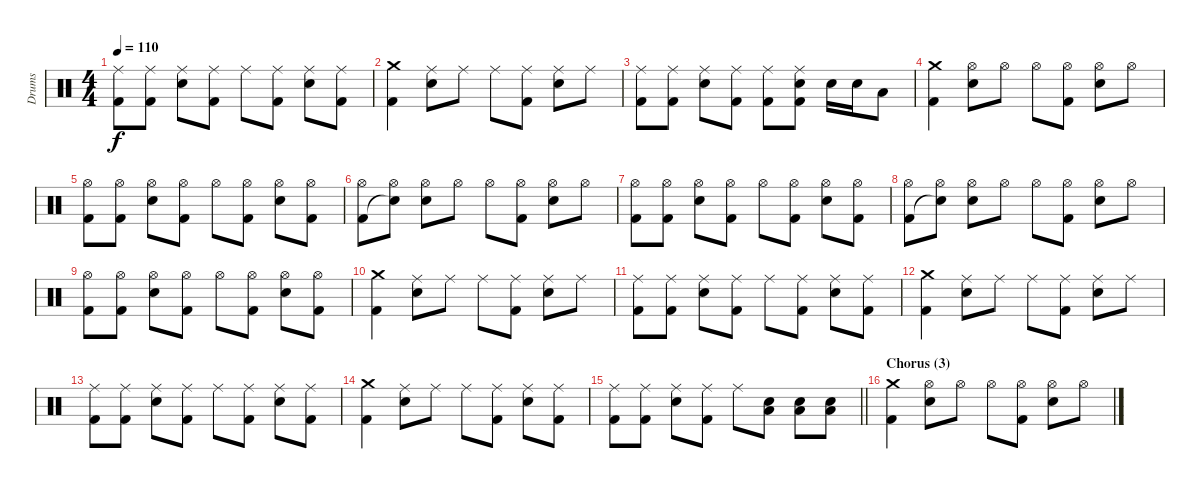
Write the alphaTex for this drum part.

\track ("Drums" "Drums") {instrument percussion}
\staff {score}
\articulation defaults
\ts (4 4)
\tempo 110
\clef neutral
\ks c
("Ride (middle)" "Kick (hit) 2").8{dy f} ("Ride (middle)" "Kick (hit) 2").8 ("Ride (middle)" "Electric Snare (hit)").8 ("Ride (middle)" "Kick (hit) 2").8 "Ride (middle)".8 ("Ride (middle)" "Kick (hit) 2").8 ("Ride (middle)" "Electric Snare (hit)").8 ("Ride (middle)" "Kick (hit) 2").8 |
("Crash medium (hit)" "Kick (hit) 2").4 ("Ride (middle)" "Electric Snare (hit)").8 "Ride (middle)".8 "Ride (middle)".8 ("Ride (middle)" "Kick (hit) 2").8 ("Ride (middle)" "Electric Snare (hit)").8 "Ride (middle)".8 |
("Ride (middle)" "Kick (hit) 2").8 ("Ride (middle)" "Kick (hit) 2").8 ("Ride (middle)" "Electric Snare (hit)").8 ("Ride (middle)" "Kick (hit) 2").8 ("Ride (middle)" "Kick (hit) 2").8 ("Ride (middle)" "Electric Snare (hit)" "Kick (hit) 2").8 "Electric Snare (hit)".16 "Electric Snare (hit)".16 "Low Floor Tom (hit)".8 |
("Crash medium (hit)" "Kick (hit) 2").4 ("Hi-Hat (open)" "Electric Snare (hit)").8 "Hi-Hat (open)".8 "Hi-Hat (open)".8 ("Hi-Hat (open)" "Kick (hit) 2").8 ("Hi-Hat (open)" "Electric Snare (hit)").8 "Hi-Hat (open)".8 |
("Hi-Hat (open)" "Kick (hit) 2").8 ("Hi-Hat (open)" "Kick (hit) 2").8 ("Hi-Hat (open)" "Electric Snare (hit)").8 ("Hi-Hat (open)" "Kick (hit) 2").8 "Hi-Hat (open)".8 ("Hi-Hat (open)" "Kick (hit) 2").8 ("Hi-Hat (open)" "Electric Snare (hit)").8 ("Hi-Hat (open)" "Kick (hit) 2").8 |
("Hi-Hat (open)" "Kick (hit) 2").8 ("Hi-Hat (open)" "Snare (hit)"{t}).8 ("Hi-Hat (open)" "Electric Snare (hit)").8 "Hi-Hat (open)".8 "Hi-Hat (open)".8 ("Hi-Hat (open)" "Kick (hit) 2").8 ("Hi-Hat (open)" "Electric Snare (hit)").8 "Hi-Hat (open)".8 |
("Hi-Hat (open)" "Kick (hit) 2").8 ("Hi-Hat (open)" "Kick (hit) 2").8 ("Hi-Hat (open)" "Electric Snare (hit)").8 ("Hi-Hat (open)" "Kick (hit) 2").8 "Hi-Hat (open)".8 ("Hi-Hat (open)" "Kick (hit) 2").8 ("Hi-Hat (open)" "Electric Snare (hit)").8 ("Hi-Hat (open)" "Kick (hit) 2").8 |
("Hi-Hat (open)" "Kick (hit) 2").8 ("Hi-Hat (open)" "Snare (hit)"{t}).8 ("Hi-Hat (open)" "Electric Snare (hit)").8 "Hi-Hat (open)".8 "Hi-Hat (open)".8 ("Hi-Hat (open)" "Kick (hit) 2").8 ("Hi-Hat (open)" "Electric Snare (hit)").8 "Hi-Hat (open)".8 |
("Hi-Hat (open)" "Kick (hit) 2").8 ("Hi-Hat (open)" "Kick (hit) 2").8 ("Hi-Hat (open)" "Electric Snare (hit)").8 ("Hi-Hat (open)" "Kick (hit) 2").8 "Hi-Hat (open)".8 ("Hi-Hat (open)" "Kick (hit) 2").8 ("Hi-Hat (open)" "Electric Snare (hit)").8 ("Hi-Hat (open)" "Kick (hit) 2").8 |
("Crash medium (hit)" "Kick (hit) 2").4 ("Ride (middle)" "Electric Snare (hit)").8 "Ride (middle)".8 "Ride (middle)".8 ("Ride (middle)" "Kick (hit) 2").8 ("Ride (middle)" "Electric Snare (hit)").8 "Ride (middle)".8 |
("Ride (middle)" "Kick (hit) 2").8 ("Ride (middle)" "Kick (hit) 2").8 ("Ride (middle)" "Electric Snare (hit)").8 ("Ride (middle)" "Kick (hit) 2").8 "Ride (middle)".8 ("Ride (middle)" "Kick (hit) 2").8 ("Ride (middle)" "Electric Snare (hit)").8 ("Ride (middle)" "Kick (hit) 2").8 |
("Crash medium (hit)" "Kick (hit) 2").4 ("Ride (middle)" "Electric Snare (hit)").8 "Ride (middle)".8 "Ride (middle)".8 ("Ride (middle)" "Kick (hit) 2").8 ("Ride (middle)" "Electric Snare (hit)").8 "Ride (middle)".8 |
("Ride (middle)" "Kick (hit) 2").8 ("Ride (middle)" "Kick (hit) 2").8 ("Ride (middle)" "Electric Snare (hit)").8 ("Ride (middle)" "Kick (hit) 2").8 "Ride (middle)".8 ("Ride (middle)" "Kick (hit) 2").8 ("Ride (middle)" "Electric Snare (hit)").8 ("Ride (middle)" "Kick (hit) 2").8 |
("Crash medium (hit)" "Kick (hit) 2").4 ("Ride (middle)" "Electric Snare (hit)").8 "Ride (middle)".8 "Ride (middle)".8 ("Ride (middle)" "Kick (hit) 2").8 ("Ride (middle)" "Electric Snare (hit)").8 ("Ride (middle)" "Kick (hit) 2").8 |
\barLineRight lightlight
("Ride (middle)" "Kick (hit) 2").8 ("Ride (middle)" "Kick (hit) 2").8 ("Ride (middle)" "Electric Snare (hit)").8 ("Ride (middle)" "Kick (hit) 2").8 "Ride (middle)".8 ("Electric Snare (hit)" "Low Floor Tom (hit)").8 ("Electric Snare (hit)" "Low Floor Tom (hit)").8 ("Electric Snare (hit)" "Low Floor Tom (hit)").8 |
\section ("" "Chorus (3)")
("Crash medium (hit)" "Kick (hit) 2").4 ("Hi-Hat (open)" "Electric Snare (hit)").8 "Hi-Hat (open)".8 "Hi-Hat (open)".8 ("Hi-Hat (open)" "Kick (hit) 2").8 ("Hi-Hat (open)" "Electric Snare (hit)").8 "Hi-Hat (open)".8
